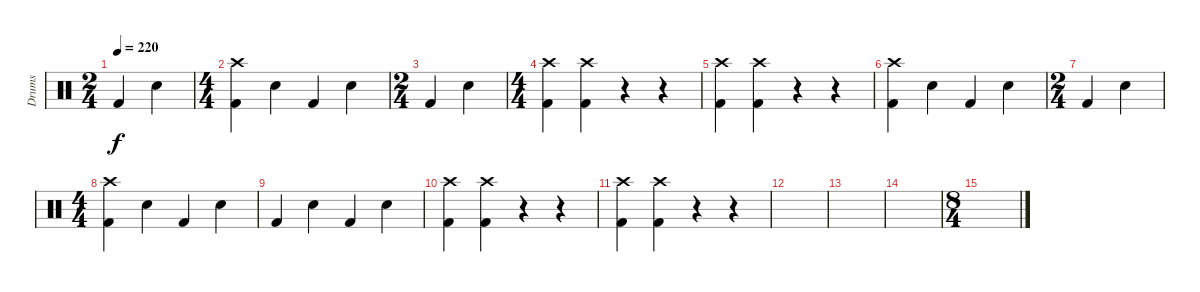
\track ("Drums" "Drums") {instrument percussion}
\staff {score}
\articulation defaults
\ts (2 4)
\tempo 220
\clef neutral
\ks c "Kick (hit) 2".4{dy f} "Electric Snare (hit)".4
|
\ts (4 4)
("Crash high (hit)" "Kick (hit) 2").4 "Electric Snare (hit)".4 "Kick (hit) 2".4 "Electric Snare (hit)".4 |
\ts (2 4)
"Kick (hit) 2".4 "Electric Snare (hit)".4 |
\ts (4 4)
("Crash high (hit)" "Kick (hit) 2").4 ("Kick (hit) 2" "Crash high (hit)").4 r.4 r.4 |
("Kick (hit) 2" "Crash high (hit)").4 ("Crash high (hit)" "Kick (hit) 2").4 r.4 r.4 |
("Crash high (hit)" "Kick (hit) 2").4 "Electric Snare (hit)".4 "Kick (hit) 2".4 "Electric Snare (hit)".4 |
\ts (2 4)
"Kick (hit) 2".4 "Electric Snare (hit)".4 |
\ts (4 4)
("Crash high (hit)" "Kick (hit) 2").4 "Electric Snare (hit)".4 "Kick (hit) 2".4 "Electric Snare (hit)".4 |
"Kick (hit) 2".4 "Electric Snare (hit)".4 "Kick (hit) 2".4 "Electric Snare (hit)".4 |
("Crash high (hit)" "Kick (hit) 2").4 ("Crash high (hit)" "Kick (hit) 2").4 r.4 r.4 |
("Crash high (hit)" "Kick (hit) 2").4 ("Crash high (hit)" "Kick (hit) 2").4 r.4 r.4 |
|
|
|
\ts (8 4)
